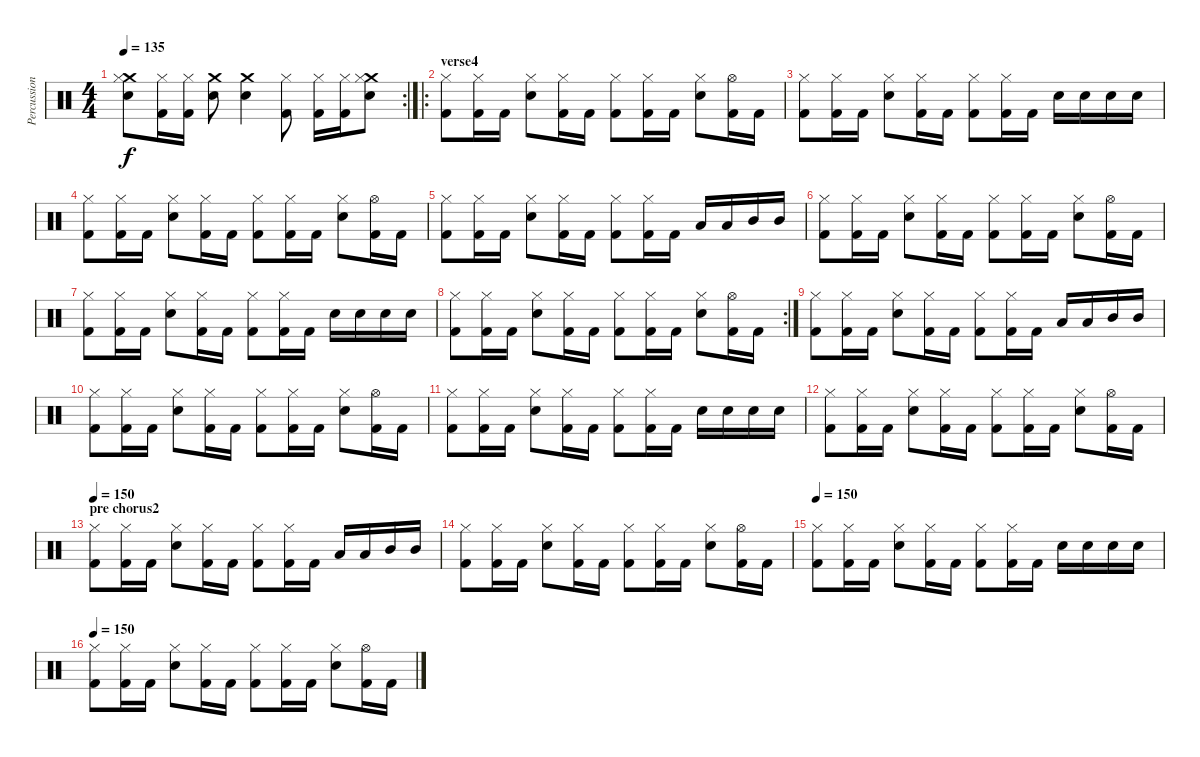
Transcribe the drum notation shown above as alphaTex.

\track ("Percussions" "Percussion") {instrument percussion}
\staff {score}
\articulation defaults
\rc 2
\ts (4 4)
\tempo 135
\clef neutral
\ks c
("Crash medium (hit)" "Hi-Hat (closed)" "Electric Snare (hit)").8{dy f} ("Hi-Hat (closed)" "Kick (hit) 2").16 ("Hi-Hat (closed)" "Kick (hit) 2").16 ("Crash medium (hit)" "Electric Snare (hit)").8 ("Crash medium (hit)" "Electric Snare (hit)").4 ("Hi-Hat (closed)" "Kick (hit) 2").8 ("Hi-Hat (closed)" "Kick (hit) 2").16 ("Hi-Hat (closed)" "Kick (hit) 2").16 ("Crash medium (hit)" "Hi-Hat (closed)" "Electric Snare (hit)").8 |
\ro
\section ("" "verse4")
("Hi-Hat (closed)" "Kick (hit) 2").8 ("Hi-Hat (closed)" "Kick (hit) 2").16 "Kick (hit) 2".16 ("Hi-Hat (closed)" "Snare (hit) 2").8 ("Hi-Hat (closed)" "Kick (hit) 2").16 "Kick (hit) 2".16 ("Hi-Hat (closed)" "Kick (hit) 2").8 ("Hi-Hat (closed)" "Kick (hit) 2").16 "Kick (hit) 2".16 ("Hi-Hat (closed)" "Snare (hit) 2").8 ("Hi-Hat (open)" "Kick (hit) 2").16 "Kick (hit) 2".16 |
("Hi-Hat (closed)" "Kick (hit) 2").8 ("Hi-Hat (closed)" "Kick (hit) 2").16 "Kick (hit) 2".16 ("Hi-Hat (closed)" "Snare (hit) 2").8 ("Hi-Hat (closed)" "Kick (hit) 2").16 "Kick (hit) 2".16 ("Hi-Hat (closed)" "Kick (hit) 2").8 ("Hi-Hat (closed)" "Kick (hit) 2").16 "Kick (hit) 2".16 "Snare (hit) 2".16 "Snare (hit) 2".16 "Snare (hit) 2".16 "Snare (hit) 2".16 |
("Hi-Hat (closed)" "Kick (hit) 2").8 ("Hi-Hat (closed)" "Kick (hit) 2").16 "Kick (hit) 2".16 ("Hi-Hat (closed)" "Snare (hit) 2").8 ("Hi-Hat (closed)" "Kick (hit) 2").16 "Kick (hit) 2".16 ("Hi-Hat (closed)" "Kick (hit) 2").8 ("Hi-Hat (closed)" "Kick (hit) 2").16 "Kick (hit) 2".16 ("Hi-Hat (closed)" "Snare (hit) 2").8 ("Hi-Hat (open)" "Kick (hit) 2").16 "Kick (hit) 2".16 |
("Hi-Hat (closed)" "Kick (hit) 2").8 ("Hi-Hat (closed)" "Kick (hit) 2").16 "Kick (hit) 2".16 ("Hi-Hat (closed)" "Snare (hit) 2").8 ("Hi-Hat (closed)" "Kick (hit) 2").16 "Kick (hit) 2".16 ("Hi-Hat (closed)" "Kick (hit) 2").8 ("Hi-Hat (closed)" "Kick (hit) 2").16 "Kick (hit) 2".16 "Low Tom (hit)".16 "Low Tom (hit)".16 "Mid Tom (hit)".16 "Mid Tom (hit)".16 |
("Hi-Hat (closed)" "Kick (hit) 2").8 ("Hi-Hat (closed)" "Kick (hit) 2").16 "Kick (hit) 2".16 ("Hi-Hat (closed)" "Snare (hit) 2").8 ("Hi-Hat (closed)" "Kick (hit) 2").16 "Kick (hit) 2".16 ("Hi-Hat (closed)" "Kick (hit) 2").8 ("Hi-Hat (closed)" "Kick (hit) 2").16 "Kick (hit) 2".16 ("Hi-Hat (closed)" "Snare (hit) 2").8 ("Hi-Hat (open)" "Kick (hit) 2").16 "Kick (hit) 2".16 |
("Hi-Hat (closed)" "Kick (hit) 2").8 ("Hi-Hat (closed)" "Kick (hit) 2").16 "Kick (hit) 2".16 ("Hi-Hat (closed)" "Snare (hit) 2").8 ("Hi-Hat (closed)" "Kick (hit) 2").16 "Kick (hit) 2".16 ("Hi-Hat (closed)" "Kick (hit) 2").8 ("Hi-Hat (closed)" "Kick (hit) 2").16 "Kick (hit) 2".16 "Snare (hit) 2".16 "Snare (hit) 2".16 "Snare (hit) 2".16 "Snare (hit) 2".16 |
\rc 2
("Hi-Hat (closed)" "Kick (hit) 2").8 ("Hi-Hat (closed)" "Kick (hit) 2").16 "Kick (hit) 2".16 ("Hi-Hat (closed)" "Snare (hit) 2").8 ("Hi-Hat (closed)" "Kick (hit) 2").16 "Kick (hit) 2".16 ("Hi-Hat (closed)" "Kick (hit) 2").8 ("Hi-Hat (closed)" "Kick (hit) 2").16 "Kick (hit) 2".16 ("Hi-Hat (closed)" "Snare (hit) 2").8 ("Hi-Hat (open)" "Kick (hit) 2").16 "Kick (hit) 2".16 |
("Hi-Hat (closed)" "Kick (hit) 2").8 ("Hi-Hat (closed)" "Kick (hit) 2").16 "Kick (hit) 2".16 ("Hi-Hat (closed)" "Snare (hit) 2").8 ("Hi-Hat (closed)" "Kick (hit) 2").16 "Kick (hit) 2".16 ("Hi-Hat (closed)" "Kick (hit) 2").8 ("Hi-Hat (closed)" "Kick (hit) 2").16 "Kick (hit) 2".16 "Low Tom (hit)".16 "Low Tom (hit)".16 "Mid Tom (hit)".16 "Mid Tom (hit)".16 |
("Hi-Hat (closed)" "Kick (hit) 2").8 ("Hi-Hat (closed)" "Kick (hit) 2").16 "Kick (hit) 2".16 ("Hi-Hat (closed)" "Snare (hit) 2").8 ("Hi-Hat (closed)" "Kick (hit) 2").16 "Kick (hit) 2".16 ("Hi-Hat (closed)" "Kick (hit) 2").8 ("Hi-Hat (closed)" "Kick (hit) 2").16 "Kick (hit) 2".16 ("Hi-Hat (closed)" "Snare (hit) 2").8 ("Hi-Hat (open)" "Kick (hit) 2").16 "Kick (hit) 2".16 |
("Hi-Hat (closed)" "Kick (hit) 2").8 ("Hi-Hat (closed)" "Kick (hit) 2").16 "Kick (hit) 2".16 ("Hi-Hat (closed)" "Snare (hit) 2").8 ("Hi-Hat (closed)" "Kick (hit) 2").16 "Kick (hit) 2".16 ("Hi-Hat (closed)" "Kick (hit) 2").8 ("Hi-Hat (closed)" "Kick (hit) 2").16 "Kick (hit) 2".16 "Snare (hit) 2".16 "Snare (hit) 2".16 "Snare (hit) 2".16 "Snare (hit) 2".16 |
("Hi-Hat (closed)" "Kick (hit) 2").8 ("Hi-Hat (closed)" "Kick (hit) 2").16 "Kick (hit) 2".16 ("Hi-Hat (closed)" "Snare (hit) 2").8 ("Hi-Hat (closed)" "Kick (hit) 2").16 "Kick (hit) 2".16 ("Hi-Hat (closed)" "Kick (hit) 2").8 ("Hi-Hat (closed)" "Kick (hit) 2").16 "Kick (hit) 2".16 ("Hi-Hat (closed)" "Snare (hit) 2").8 ("Hi-Hat (open)" "Kick (hit) 2").16 "Kick (hit) 2".16 |
\section ("" "pre chorus2")
\tempo 150
("Hi-Hat (closed)" "Kick (hit) 2").8 ("Hi-Hat (closed)" "Kick (hit) 2").16 "Kick (hit) 2".16 ("Hi-Hat (closed)" "Snare (hit) 2").8 ("Hi-Hat (closed)" "Kick (hit) 2").16 "Kick (hit) 2".16 ("Hi-Hat (closed)" "Kick (hit) 2").8 ("Hi-Hat (closed)" "Kick (hit) 2").16 "Kick (hit) 2".16 "Low Tom (hit)".16 "Low Tom (hit)".16 "Mid Tom (hit)".16 "Mid Tom (hit)".16 |
("Hi-Hat (closed)" "Kick (hit) 2").8 ("Hi-Hat (closed)" "Kick (hit) 2").16 "Kick (hit) 2".16 ("Hi-Hat (closed)" "Snare (hit) 2").8 ("Hi-Hat (closed)" "Kick (hit) 2").16 "Kick (hit) 2".16 ("Hi-Hat (closed)" "Kick (hit) 2").8 ("Hi-Hat (closed)" "Kick (hit) 2").16 "Kick (hit) 2".16 ("Hi-Hat (closed)" "Snare (hit) 2").8 ("Hi-Hat (open)" "Kick (hit) 2").16 "Kick (hit) 2".16 |
\tempo 150
("Hi-Hat (closed)" "Kick (hit) 2").8 ("Hi-Hat (closed)" "Kick (hit) 2").16 "Kick (hit) 2".16 ("Hi-Hat (closed)" "Snare (hit) 2").8 ("Hi-Hat (closed)" "Kick (hit) 2").16 "Kick (hit) 2".16 ("Hi-Hat (closed)" "Kick (hit) 2").8 ("Hi-Hat (closed)" "Kick (hit) 2").16 "Kick (hit) 2".16 "Snare (hit) 2".16 "Snare (hit) 2".16 "Snare (hit) 2".16 "Snare (hit) 2".16 |
\tempo 150
("Hi-Hat (closed)" "Kick (hit) 2").8 ("Hi-Hat (closed)" "Kick (hit) 2").16 "Kick (hit) 2".16 ("Hi-Hat (closed)" "Snare (hit) 2").8 ("Hi-Hat (closed)" "Kick (hit) 2").16 "Kick (hit) 2".16 ("Hi-Hat (closed)" "Kick (hit) 2").8 ("Hi-Hat (closed)" "Kick (hit) 2").16 "Kick (hit) 2".16 ("Hi-Hat (closed)" "Snare (hit) 2").8 ("Hi-Hat (open)" "Kick (hit) 2").16 "Kick (hit) 2".16
